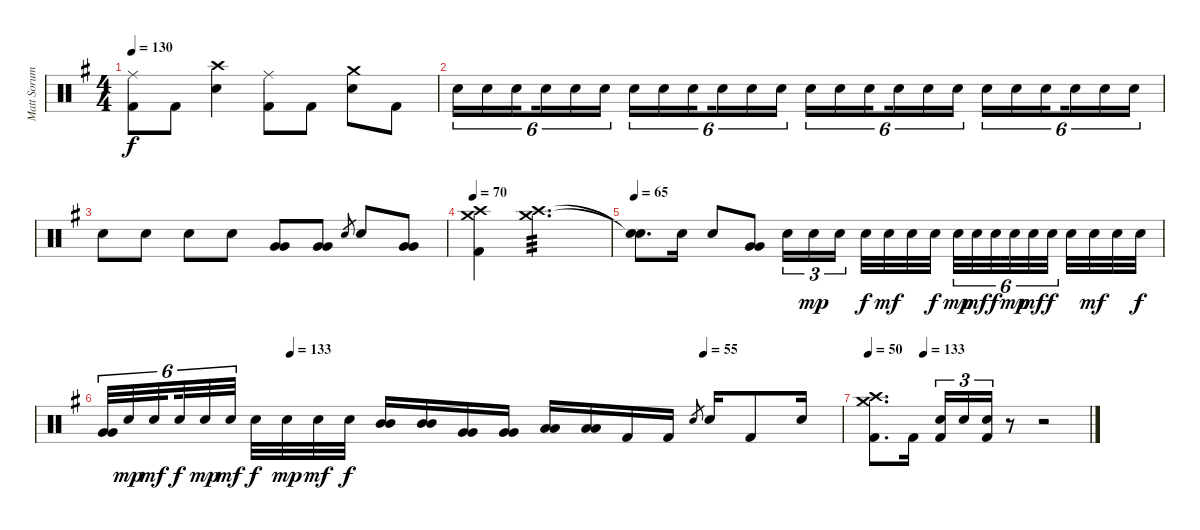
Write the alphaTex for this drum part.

\track ("Matt Sorum - Drums" "Matt Sorum") {instrument percussion}
\staff {score}
\articulation defaults
\ts (4 4)
\tempo 130
\clef neutral
\ks g
("Ride (middle)" "Kick (hit) 2").8{dy f} "Kick (hit) 2".8 ("Crash high (hit)" "Snare (hit) 2").4 ("Ride (middle)" "Kick (hit) 2").8 "Kick (hit) 2".8 ("Crash medium (hit)" "Snare (hit) 2").8 "Kick (hit) 2".8 |
"Snare (hit) 2".16{tu (6 4)} "Snare (hit) 2".16{tu (6 4)} "Snare (hit) 2".16{tu (6 4) beam splitsecondary} "Snare (hit) 2".16{tu (6 4)} "Snare (hit) 2".16{tu (6 4)} "Snare (hit) 2".16{tu (6 4)} "Snare (hit) 2".16{tu (6 4)} "Snare (hit) 2".16{tu (6 4)} "Snare (hit) 2".16{tu (6 4) beam splitsecondary} "Snare (hit) 2".16{tu (6 4)} "Snare (hit) 2".16{tu (6 4)} "Snare (hit) 2".16{tu (6 4)} "Snare (hit) 2".16{tu (6 4)} "Snare (hit) 2".16{tu (6 4)} "Snare (hit) 2".16{tu (6 4) beam splitsecondary} "Snare (hit) 2".16{tu (6 4)} "Snare (hit) 2".16{tu (6 4)} "Snare (hit) 2".16{tu (6 4)} "Snare (hit) 2".16{tu (6 4)} "Snare (hit) 2".16{tu (6 4)} "Snare (hit) 2".16{tu (6 4) beam splitsecondary} "Snare (hit) 2".16{tu (6 4)} "Snare (hit) 2".16{tu (6 4)} "Snare (hit) 2".16{tu (6 4)} |
"Snare (hit) 2".8 "Snare (hit) 2".8 "Snare (hit) 2".8 "Snare (hit) 2".8 ("Very Low Tom (hit)" "Very Low Tom (hit)").8 ("Very Low Tom (hit)" "Very Low Tom (hit)").8 "Snare (hit) 2".8{gr} "Snare (hit) 2".8 ("Very Low Tom (hit)" "Very Low Tom (hit)").8 |
\tempo 70
("Crash medium (hit)" "Crash high (hit)" "Kick (hit) 2").4 ("Crash medium (hit)" "Crash high (hit)").2{d tp 3} |
\tempo 65
("Snare (hit)"{t} "Snare (hit)"{t}).8{d} "Snare (hit) 2".16 "Snare (hit) 2".8 ("Very Low Tom (hit)" "Very Low Tom (hit)").8 "Snare (hit) 2".16{tu (3 2)} "Snare (hit) 2".16{tu (3 2) dy mp} "Snare (hit) 2".16{tu (3 2) beam splitsecondary} "Snare (hit) 2".32{dy f} "Snare (hit) 2".32{dy mf} "Snare (hit) 2".32 "Snare (hit) 2".32{dy f} "Snare (hit) 2".32{tu (6 4) dy mp} "Snare (hit) 2".32{tu (6 4) dy mf} "Snare (hit) 2".32{tu (6 4) dy f beam splitsecondary} "Snare (hit) 2".32{tu (6 4) dy mp} "Snare (hit) 2".32{tu (6 4) dy mf} "Snare (hit) 2".32{tu (6 4) dy f beam splitsecondary} "Snare (hit) 2".32 "Snare (hit) 2".32{dy mf} "Snare (hit) 2".32 "Snare (hit) 2".32{dy f} |
\tempo (133 0.25)
\tempo (55 0.8125)
("Very Low Tom (hit)" "Very Low Tom (hit)").32{tu (6 4)} "Snare (hit) 2".32{tu (6 4) dy mp} "Snare (hit) 2".32{tu (6 4) dy mf beam splitsecondary} "Snare (hit) 2".32{tu (6 4) dy f} "Snare (hit) 2".32{tu (6 4) dy mp} "Snare (hit) 2".32{tu (6 4) dy mf beam splitsecondary} "Snare (hit) 2".32{dy f} "Snare (hit) 2".32{dy mp} "Snare (hit) 2".32{dy mf} "Snare (hit) 2".32{dy f} ("Mid Tom (hit)" "Mid Tom (hit)").16 ("Mid Tom (hit)" "Mid Tom (hit)").16 ("Very Low Tom (hit)" "Very Low Tom (hit)").16 ("Very Low Tom (hit)" "Very Low Tom (hit)").16 ("Low Floor Tom (hit)" "Low Floor Tom (hit)").16 ("Low Floor Tom (hit)" "Low Floor Tom (hit)").16 "Kick (hit) 2".16 "Kick (hit) 2".16 "Snare (hit) 2".8{gr} "Snare (hit) 2".16 "Kick (hit) 2".8 "Snare (hit) 2".16 |
\tempo 50
\tempo (133 0.25)
("Crash medium (hit)" "Crash high (hit)" "Kick (hit) 2").8{d} "Kick (hit) 2".16 ("Snare (hit) 2" "Kick (hit) 2").16{tu (3 2)} "Snare (hit) 2".16{tu (3 2)} ("Snare (hit) 2" "Kick (hit) 2").16{tu (3 2)} r.8 r.2
